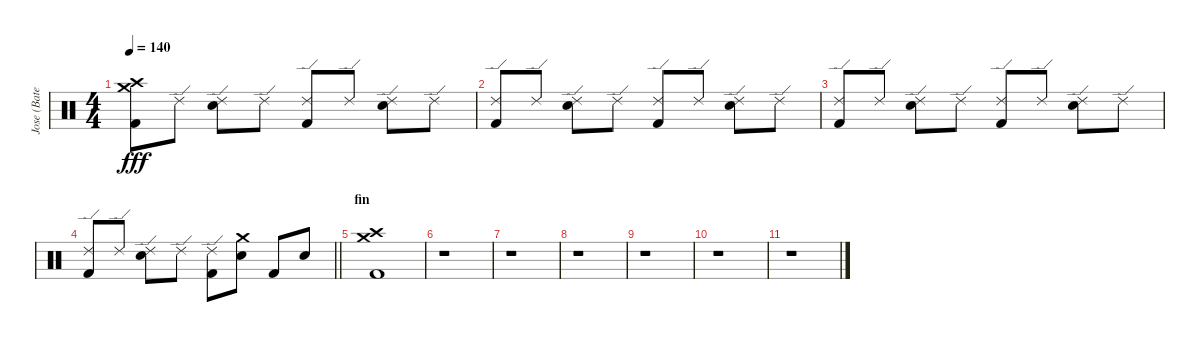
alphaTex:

\track ("Jose (Bateria)" "Jose (Bate") {instrument percussion}
\staff {score}
\articulation defaults
\ts (4 4)
\tempo 140
\clef neutral
\ks aminor
("Crash high (hit)" "Crash medium (hit)" "Kick (hit) 2").8{dy fff} "Ride (edge) 2".8 ("Ride (edge) 2" "Snare (hit) 2").8 "Ride (edge) 2".8 ("Ride (edge) 2" "Kick (hit) 2").8 "Ride (edge) 2".8 ("Ride (edge) 2" "Snare (hit) 2").8 "Ride (edge) 2".8 |
("Ride (edge) 2" "Kick (hit) 2").8 "Ride (edge) 2".8 ("Ride (edge) 2" "Snare (hit) 2").8 "Ride (edge) 2".8 ("Ride (edge) 2" "Kick (hit) 2").8 "Ride (edge) 2".8 ("Ride (edge) 2" "Snare (hit) 2").8 "Ride (edge) 2".8 |
("Ride (edge) 2" "Kick (hit) 2").8 "Ride (edge) 2".8 ("Ride (edge) 2" "Snare (hit) 2").8 "Ride (edge) 2".8 ("Ride (edge) 2" "Kick (hit) 2").8 "Ride (edge) 2".8 ("Ride (edge) 2" "Snare (hit) 2").8 "Ride (edge) 2".8 |
\barLineRight lightlight
("Ride (edge) 2" "Kick (hit) 2").8 "Ride (edge) 2".8 ("Ride (edge) 2" "Snare (hit) 2").8 "Ride (edge) 2".8 ("Ride (edge) 2" "Kick (hit) 2").8 ("Crash medium (hit)" "Snare (hit) 2").8 "Kick (hit) 2".8 "Snare (hit) 2".8 |
\section ("" "fin")
("Crash medium (hit)" "Crash high (hit)" "Kick (hit) 2").1 |
r.1 |
r.1 |
r.1 |
r.1 |
r.1 |
r.1
